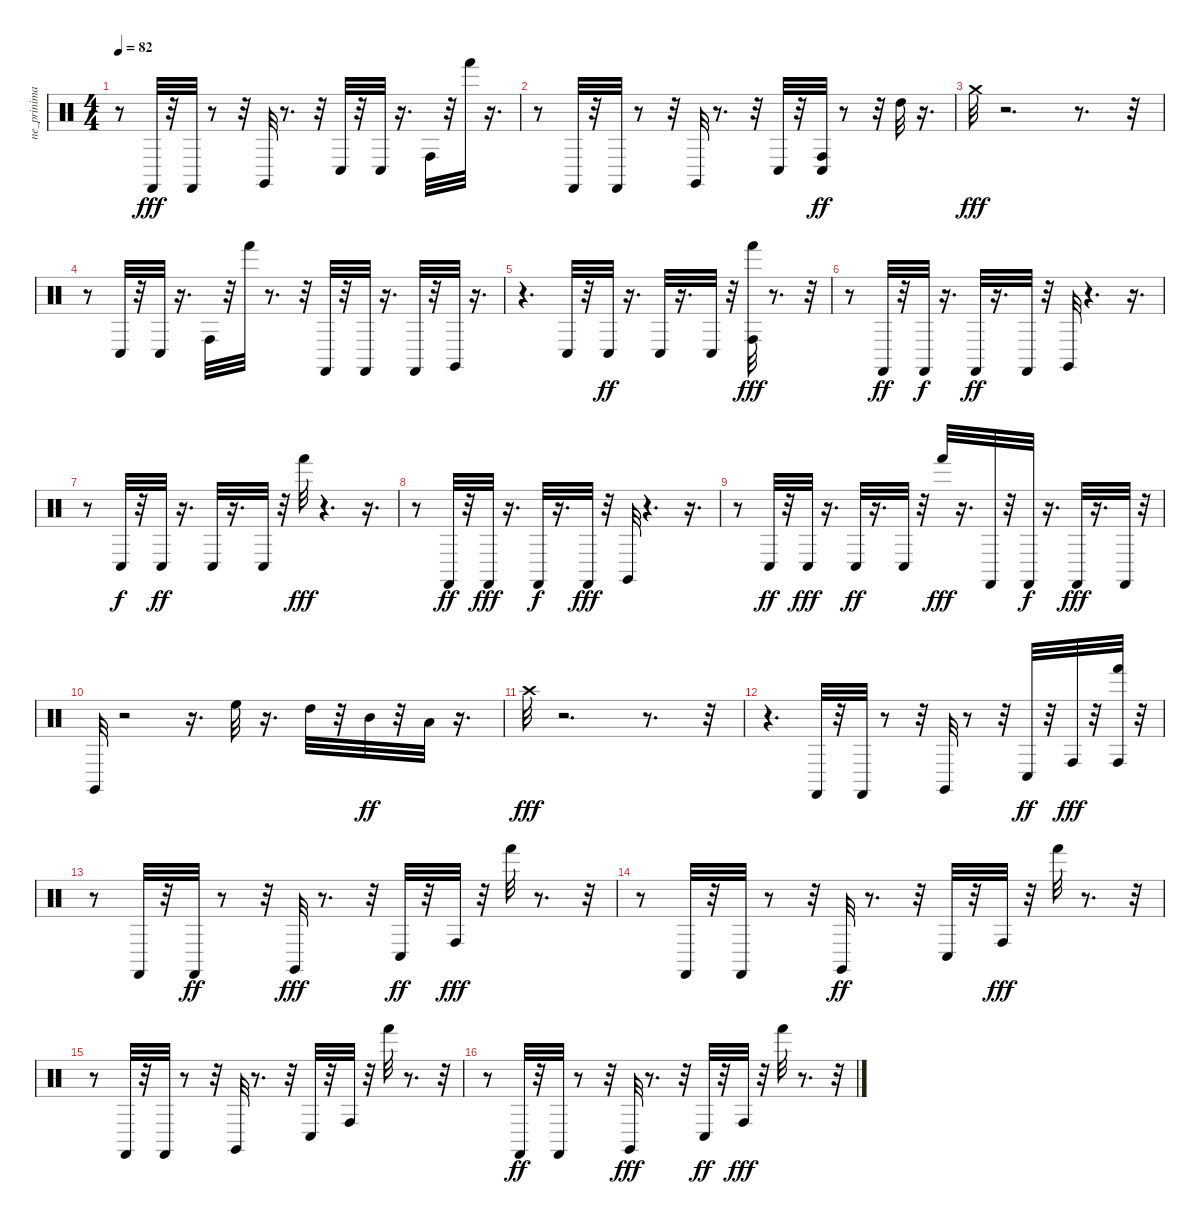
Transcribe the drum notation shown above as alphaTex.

\track ("ne_prinimai" "ne_prinima") {instrument percussion}
\staff {score}
\articulation defaults
\ts (4 4)
\tempo 82
\clef neutral
\ks c
r.8{dy fff} "Castanets (hit)".32 r.32 "Castanets (hit)".32 r.8 r.32 "Claves (hit)".32 r.8{d} r.32 "Conga low (hit)".32 r.32 "Conga low (hit)".32 r.16{d} "Conga high (hit)".32 r.32 "Hand (hit)".32 r.16{d} |
r.8 "Castanets (hit)".32 r.32 "Castanets (hit)".32 r.8 r.32 "Claves (hit)".32 r.8{d} r.32 "Conga low (hit)".32 r.32 ("Conga high (hit)" "Conga low (hit)").32{dy ff} r.8 r.32 "High Tom (hit)".32 r.16{d} |
"Crash medium (hit)".32{dy fff} r.2{d} r.8{d} r.32 |
r.8 "Conga low (hit)".32 r.32 "Conga low (hit)".32 r.16{d} "Conga high (hit)".32 r.32 "Hand (hit)".32 r.8{d} r.32 "Castanets (hit)".32 r.32 "Castanets (hit)".32 r.16{d} "Castanets (hit)".32 r.32 "Claves (hit)".32 r.16{d} |
r.4{d} "Conga low (hit)".32 r.32 "Conga low (hit)".32{dy ff} r.16{d} "Conga low (hit)".32 r.16{d} "Conga low (hit)".32 r.32 ("Conga high (hit)" "Hand (hit)").32{dy fff} r.8{d} r.32 |
r.8 "Castanets (hit)".32{dy ff} r.32 "Castanets (hit)".32{dy f} r.16{d} "Castanets (hit)".32{dy ff} r.16{d} "Castanets (hit)".32 r.32 "Claves (hit)".32 r.4{d} r.16{d} |
r.8 "Conga low (hit)".32{dy f} r.32 "Conga low (hit)".32{dy ff} r.16{d} "Conga low (hit)".32 r.16{d} "Conga low (hit)".32 r.32 "Hand (hit)".32{dy fff} r.4{d} r.16{d} |
r.8 "Castanets (hit)".32{dy ff} r.32 "Castanets (hit)".32{dy fff} r.16{d} "Castanets (hit)".32{dy f} r.16{d} "Castanets (hit)".32{dy fff} r.32 "Claves (hit)".32 r.4{d} r.16{d} |
r.8 "Conga low (hit)".32{dy ff} r.32 "Conga low (hit)".32{dy fff} r.16{d} "Conga low (hit)".32{dy ff} r.16{d} "Conga low (hit)".32 r.32 "Hand (hit)".32{dy fff} r.16{d} "Castanets (hit)".32 r.32 "Castanets (hit)".32{dy f} r.16{d} "Castanets (hit)".32{dy fff} r.16{d} "Castanets (hit)".32 r.32 |
"Claves (hit)".32 r.2 r.16{d} "High Floor Tom (hit)".32 r.16{d} "High Tom (hit)".32 r.32 "Mid Tom (hit)".32{dy ff} r.32 "Low Tom (hit)".32 r.16{d} |
"Crash high (hit)".32{dy fff} r.2{d} r.8{d} r.32 |
r.4{d} "Castanets (hit)".32 r.32 "Castanets (hit)".32 r.8 r.32 "Claves (hit)".32 r.8 r.32 "Conga low (hit)".32{dy ff} r.32 "Conga high (hit)".32{dy fff} r.32 ("Conga high (hit)" "Hand (hit)").32 r.32 |
r.8 "Castanets (hit)".32 r.32 "Castanets (hit)".32{dy ff} r.8 r.32 "Claves (hit)".32{dy fff} r.8{d} r.32 "Conga low (hit)".32{dy ff} r.32 "Conga high (hit)".32{dy fff} r.32 "Hand (hit)".32 r.8{d} r.32 |
r.8 "Castanets (hit)".32 r.32 "Castanets (hit)".32 r.8 r.32 "Claves (hit)".32{dy ff} r.8{d} r.32 "Conga low (hit)".32 r.32 "Conga high (hit)".32{dy fff} r.32 "Hand (hit)".32 r.8{d} r.32 |
r.8 "Castanets (hit)".32 r.32 "Castanets (hit)".32 r.8 r.32 "Claves (hit)".32 r.8{d} r.32 "Conga low (hit)".32 r.32 "Conga high (hit)".32 r.32 "Hand (hit)".32 r.8{d} r.32 |
r.8 "Castanets (hit)".32{dy ff} r.32 "Castanets (hit)".32 r.8 r.32 "Claves (hit)".32{dy fff} r.8{d} r.32 "Conga low (hit)".32{dy ff} r.32 "Conga high (hit)".32{dy fff} r.32 "Hand (hit)".32 r.8{d} r.32
